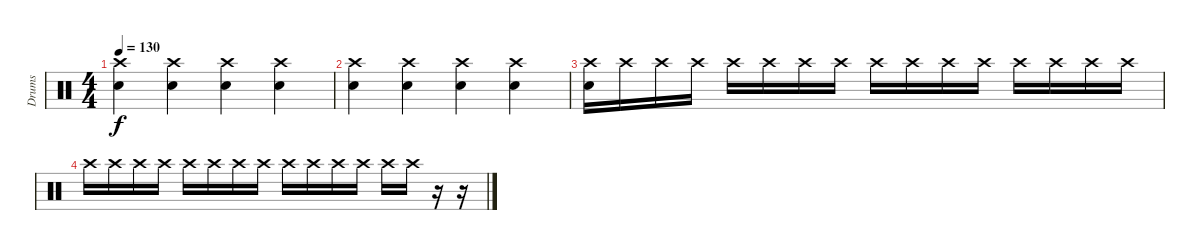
\track ("Drums" "Drums") {instrument percussion}
\staff {score}
\articulation defaults
\ts (4 4)
\tempo 130
\clef neutral
\ks c
("Snare (hit) 2" "Crash high (hit)").4{dy f} ("Snare (hit) 2" "Crash high (hit)").4 ("Snare (hit) 2" "Crash high (hit)").4 ("Snare (hit) 2" "Crash high (hit)").4 |
("Snare (hit) 2" "Crash high (hit)").4 ("Snare (hit) 2" "Crash high (hit)").4 ("Snare (hit) 2" "Crash high (hit)").4 ("Snare (hit) 2" "Crash high (hit)").4 |
("Snare (hit) 2" "Crash high (hit)").16 "Crash high (hit)".16 "Crash high (hit)".16 "Crash high (hit)".16 "Crash high (hit)".16 "Crash high (hit)".16 "Crash high (hit)".16 "Crash high (hit)".16 "Crash high (hit)".16 "Crash high (hit)".16 "Crash high (hit)".16 "Crash high (hit)".16 "Crash high (hit)".16 "Crash high (hit)".16 "Crash high (hit)".16 "Crash high (hit)".16 |
"Crash high (hit)".16 "Crash high (hit)".16 "Crash high (hit)".16 "Crash high (hit)".16 "Crash high (hit)".16 "Crash high (hit)".16 "Crash high (hit)".16 "Crash high (hit)".16 "Crash high (hit)".16 "Crash high (hit)".16 "Crash high (hit)".16 "Crash high (hit)".16 "Crash high (hit)".16 "Crash high (hit)".16 r.16 r.16
